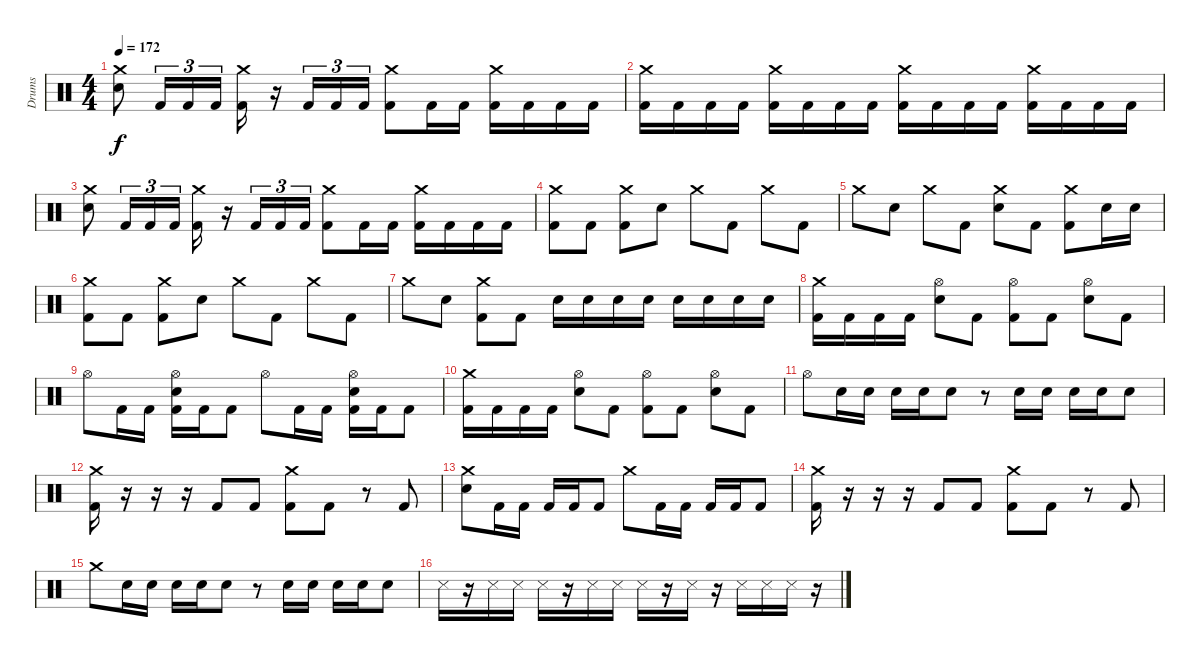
\track ("Drums" "Drums") {instrument percussion}
\staff {score}
\articulation defaults
\ts (4 4)
\tempo 172
\clef neutral
\ks c
("Crash medium (hit)" "Electric Snare (hit)").8{dy f} "Kick (hit) 2".16{tu (3 2)} "Kick (hit) 2".16{tu (3 2)} "Kick (hit) 2".16{tu (3 2)} ("Crash medium (hit)" "Kick (hit) 2").16 r.16 "Kick (hit) 2".16{tu (3 2)} "Kick (hit) 2".16{tu (3 2)} "Kick (hit) 2".16{tu (3 2)} ("Crash medium (hit)" "Kick (hit) 2").8 "Kick (hit) 2".16 "Kick (hit) 2".16 ("Crash medium (hit)" "Kick (hit) 2").16 "Kick (hit) 2".16 "Kick (hit) 2".16 "Kick (hit) 2".16 |
("Crash medium (hit)" "Kick (hit) 2").16 "Kick (hit) 2".16 "Kick (hit) 2".16 "Kick (hit) 2".16 ("Crash medium (hit)" "Kick (hit) 2").16 "Kick (hit) 2".16 "Kick (hit) 2".16 "Kick (hit) 2".16 ("Crash medium (hit)" "Kick (hit) 2").16 "Kick (hit) 2".16 "Kick (hit) 2".16 "Kick (hit) 2".16 ("Crash medium (hit)" "Kick (hit) 2").16 "Kick (hit) 2".16 "Kick (hit) 2".16 "Kick (hit) 2".16 |
("Crash medium (hit)" "Electric Snare (hit)").8 "Kick (hit) 2".16{tu (3 2)} "Kick (hit) 2".16{tu (3 2)} "Kick (hit) 2".16{tu (3 2)} ("Crash medium (hit)" "Kick (hit) 2").16 r.16 "Kick (hit) 2".16{tu (3 2)} "Kick (hit) 2".16{tu (3 2)} "Kick (hit) 2".16{tu (3 2)} ("Crash medium (hit)" "Kick (hit) 2").8 "Kick (hit) 2".16 "Kick (hit) 2".16 ("Crash medium (hit)" "Kick (hit) 2").16 "Kick (hit) 2".16 "Kick (hit) 2".16 "Kick (hit) 2".16 |
("Crash medium (hit)" "Kick (hit) 2").8 "Kick (hit) 2".8 ("Crash medium (hit)" "Kick (hit) 2").8 "Electric Snare (hit)".8 "Crash medium (hit)".8 "Kick (hit) 2".8 "Crash medium (hit)".8 "Kick (hit) 2".8 |
"Crash medium (hit)".8 "Electric Snare (hit)".8 "Crash medium (hit)".8 "Kick (hit) 2".8 ("Crash medium (hit)" "Electric Snare (hit)").8 "Kick (hit) 2".8 ("Crash medium (hit)" "Kick (hit) 2").8 "Electric Snare (hit)".16 "Electric Snare (hit)".16 |
("Crash medium (hit)" "Kick (hit) 2").8 "Kick (hit) 2".8 ("Crash medium (hit)" "Kick (hit) 2").8 "Electric Snare (hit)".8 "Crash medium (hit)".8 "Kick (hit) 2".8 "Crash medium (hit)".8 "Kick (hit) 2".8 |
"Crash medium (hit)".8 "Electric Snare (hit)".8 ("Crash medium (hit)" "Kick (hit) 2").8 "Kick (hit) 2".8 "Electric Snare (hit)".16 "Electric Snare (hit)".16 "Electric Snare (hit)".16 "Electric Snare (hit)".16 "Electric Snare (hit)".16 "Electric Snare (hit)".16 "Electric Snare (hit)".16 "Electric Snare (hit)".16 |
("Crash medium (hit)" "Kick (hit) 2").16 "Kick (hit) 2".16 "Kick (hit) 2".16 "Kick (hit) 2".16 ("Hi-Hat (open)" "Electric Snare (hit)").8 "Kick (hit) 2".8 ("Hi-Hat (open)" "Kick (hit) 2").8 "Kick (hit) 2".8 ("Hi-Hat (open)" "Electric Snare (hit)").8 "Kick (hit) 2".8 |
"Hi-Hat (open)".8 "Kick (hit) 2".16 "Kick (hit) 2".16 ("Hi-Hat (open)" "Electric Snare (hit)" "Kick (hit) 2").16 "Kick (hit) 2".16 "Kick (hit) 2".8 "Hi-Hat (open)".8 "Kick (hit) 2".16 "Kick (hit) 2".16 ("Hi-Hat (open)" "Electric Snare (hit)" "Kick (hit) 2").16 "Kick (hit) 2".16 "Kick (hit) 2".8 |
("Crash medium (hit)" "Kick (hit) 2").16 "Kick (hit) 2".16 "Kick (hit) 2".16 "Kick (hit) 2".16 ("Hi-Hat (open)" "Electric Snare (hit)").8 "Kick (hit) 2".8 ("Hi-Hat (open)" "Kick (hit) 2").8 "Kick (hit) 2".8 ("Hi-Hat (open)" "Electric Snare (hit)").8 "Kick (hit) 2".8 |
"Hi-Hat (open)".8 "Electric Snare (hit)".16 "Electric Snare (hit)".16 "Electric Snare (hit)".16 "Electric Snare (hit)".16 "Electric Snare (hit)".8 r.8 "Electric Snare (hit)".16 "Electric Snare (hit)".16 "Electric Snare (hit)".16 "Electric Snare (hit)".16 "Electric Snare (hit)".8 |
("Crash medium (hit)" "Kick (hit) 2").16 r.16 r.16 r.16 "Kick (hit) 2".8 "Kick (hit) 2".8 ("Crash medium (hit)" "Kick (hit) 2").8 "Kick (hit) 2".8 r.8 "Kick (hit) 2".8 |
("Crash medium (hit)" "Electric Snare (hit)").8 "Kick (hit) 2".16 "Kick (hit) 2".16 "Kick (hit) 2".16 "Kick (hit) 2".16 "Kick (hit) 2".8 "Crash medium (hit)".8 "Kick (hit) 2".16 "Kick (hit) 2".16 "Kick (hit) 2".16 "Kick (hit) 2".16 "Kick (hit) 2".8 |
("Crash medium (hit)" "Kick (hit) 2").16 r.16 r.16 r.16 "Kick (hit) 2".8 "Kick (hit) 2".8 ("Crash medium (hit)" "Kick (hit) 2").8 "Kick (hit) 2".8 r.8 "Kick (hit) 2".8 |
"Crash medium (hit)".8 "Electric Snare (hit)".16 "Electric Snare (hit)".16 "Electric Snare (hit)".16 "Electric Snare (hit)".16 "Electric Snare (hit)".8 r.8 "Electric Snare (hit)".16 "Electric Snare (hit)".16 "Electric Snare (hit)".16 "Electric Snare (hit)".16 "Electric Snare (hit)".8 |
"Snare (side stick) 3".16 r.16 "Snare (side stick) 3".16 "Snare (side stick) 3".16 "Snare (side stick) 3".16 r.16 "Snare (side stick) 3".16 "Snare (side stick) 3".16 "Snare (side stick) 3".16 r.16 "Snare (side stick) 3".16 r.16 "Snare (side stick) 3".16 "Snare (side stick) 3".16 "Snare (side stick) 3".16 r.16
